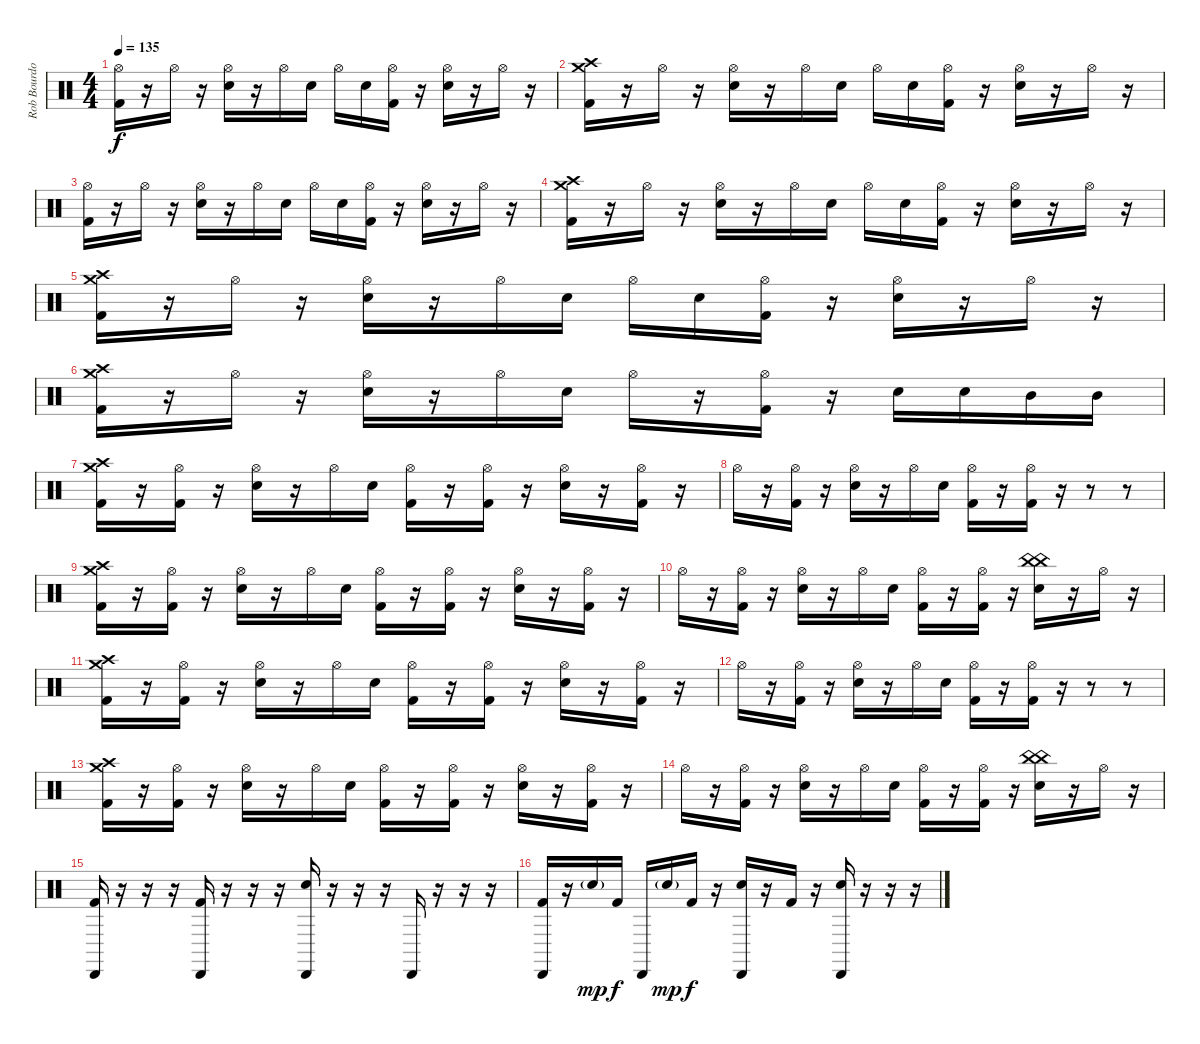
\track ("Rob Bourdon (Drums)" "Rob Bourdo") {instrument percussion}
\staff {score}
\articulation defaults
\ts (4 4)
\tempo 135
\clef neutral
\ks c
("Hi-Hat (open)" "Kick (hit) 2").16{dy f} r.16 "Hi-Hat (open)".16 r.16 ("Hi-Hat (open)" "Electric Snare (hit)").16 r.16 "Hi-Hat (open)".16 "Electric Snare (hit)".16 "Hi-Hat (open)".16 "Electric Snare (hit)".16 ("Hi-Hat (open)" "Kick (hit) 2").16 r.16 ("Hi-Hat (open)" "Electric Snare (hit)").16 r.16 "Hi-Hat (open)".16 r.16 |
("Crash high (hit)" "Crash medium (hit)" "Kick (hit) 2").16 r.16 "Hi-Hat (open)".16 r.16 ("Hi-Hat (open)" "Electric Snare (hit)").16 r.16 "Hi-Hat (open)".16 "Electric Snare (hit)".16 "Hi-Hat (open)".16 "Electric Snare (hit)".16 ("Hi-Hat (open)" "Kick (hit) 2").16 r.16 ("Hi-Hat (open)" "Electric Snare (hit)").16 r.16 "Hi-Hat (open)".16 r.16 |
("Hi-Hat (open)" "Kick (hit) 2").16 r.16 "Hi-Hat (open)".16 r.16 ("Hi-Hat (open)" "Electric Snare (hit)").16 r.16 "Hi-Hat (open)".16 "Electric Snare (hit)".16 "Hi-Hat (open)".16 "Electric Snare (hit)".16 ("Hi-Hat (open)" "Kick (hit) 2").16 r.16 ("Hi-Hat (open)" "Electric Snare (hit)").16 r.16 "Hi-Hat (open)".16 r.16 |
("Crash high (hit)" "Crash medium (hit)" "Kick (hit) 2").16 r.16 "Hi-Hat (open)".16 r.16 ("Hi-Hat (open)" "Electric Snare (hit)").16 r.16 "Hi-Hat (open)".16 "Electric Snare (hit)".16 "Hi-Hat (open)".16 "Electric Snare (hit)".16 ("Hi-Hat (open)" "Kick (hit) 2").16 r.16 ("Hi-Hat (open)" "Electric Snare (hit)").16 r.16 "Hi-Hat (open)".16 r.16 |
("Crash high (hit)" "Crash medium (hit)" "Kick (hit) 2").16 r.16 "Hi-Hat (open)".16 r.16 ("Hi-Hat (open)" "Electric Snare (hit)").16 r.16 "Hi-Hat (open)".16 "Electric Snare (hit)".16 "Hi-Hat (open)".16 "Electric Snare (hit)".16 ("Hi-Hat (open)" "Kick (hit) 2").16 r.16 ("Hi-Hat (open)" "Electric Snare (hit)").16 r.16 "Hi-Hat (open)".16 r.16 |
("Crash high (hit)" "Crash medium (hit)" "Kick (hit) 2").16 r.16 "Hi-Hat (open)".16 r.16 ("Hi-Hat (open)" "Electric Snare (hit)").16 r.16 "Hi-Hat (open)".16 "Electric Snare (hit)".16 "Hi-Hat (open)".16 r.16 ("Hi-Hat (open)" "Kick (hit) 2").16 r.16 "Electric Snare (hit)".16 "Electric Snare (hit)".16 "Mid Tom (hit)".16 "Mid Tom (hit)".16 |
("Crash high (hit)" "Crash medium (hit)" "Kick (hit) 2").16 r.16 ("Hi-Hat (open)" "Kick (hit) 2").16 r.16 ("Hi-Hat (open)" "Electric Snare (hit)").16 r.16 "Hi-Hat (open)".16 "Electric Snare (hit)".16 ("Hi-Hat (open)" "Kick (hit) 2").16 r.16 ("Hi-Hat (open)" "Kick (hit) 2").16 r.16 ("Hi-Hat (open)" "Electric Snare (hit)").16 r.16 ("Hi-Hat (open)" "Kick (hit) 2").16 r.16 |
"Hi-Hat (open)".16 r.16 ("Hi-Hat (open)" "Kick (hit) 2").16 r.16 ("Hi-Hat (open)" "Electric Snare (hit)").16 r.16 "Hi-Hat (open)".16 "Electric Snare (hit)".16 ("Hi-Hat (open)" "Kick (hit) 2").16 r.16 ("Hi-Hat (open)" "Kick (hit) 2").16 r.16 r.8 r.8 |
("Crash high (hit)" "Crash medium (hit)" "Kick (hit) 2").16 r.16 ("Hi-Hat (open)" "Kick (hit) 2").16 r.16 ("Hi-Hat (open)" "Electric Snare (hit)").16 r.16 "Hi-Hat (open)".16 "Electric Snare (hit)".16 ("Hi-Hat (open)" "Kick (hit) 2").16 r.16 ("Hi-Hat (open)" "Kick (hit) 2").16 r.16 ("Hi-Hat (open)" "Electric Snare (hit)").16 r.16 ("Hi-Hat (open)" "Kick (hit) 2").16 r.16 |
"Hi-Hat (open)".16 r.16 ("Hi-Hat (open)" "Kick (hit) 2").16 r.16 ("Hi-Hat (open)" "Electric Snare (hit)").16 r.16 "Hi-Hat (open)".16 "Electric Snare (hit)".16 ("Hi-Hat (open)" "Kick (hit) 2").16 r.16 ("Hi-Hat (open)" "Kick (hit) 2").16 r.16 ("China (hit)" "China (hit)" "Electric Snare (hit)").16 r.16 "Hi-Hat (open)".16 r.16 |
("Crash high (hit)" "Crash medium (hit)" "Kick (hit) 2").16 r.16 ("Hi-Hat (open)" "Kick (hit) 2").16 r.16 ("Hi-Hat (open)" "Electric Snare (hit)").16 r.16 "Hi-Hat (open)".16 "Electric Snare (hit)".16 ("Hi-Hat (open)" "Kick (hit) 2").16 r.16 ("Hi-Hat (open)" "Kick (hit) 2").16 r.16 ("Hi-Hat (open)" "Electric Snare (hit)").16 r.16 ("Hi-Hat (open)" "Kick (hit) 2").16 r.16 |
"Hi-Hat (open)".16 r.16 ("Hi-Hat (open)" "Kick (hit) 2").16 r.16 ("Hi-Hat (open)" "Electric Snare (hit)").16 r.16 "Hi-Hat (open)".16 "Electric Snare (hit)".16 ("Hi-Hat (open)" "Kick (hit) 2").16 r.16 ("Hi-Hat (open)" "Kick (hit) 2").16 r.16 r.8 r.8 |
("Crash high (hit)" "Crash medium (hit)" "Kick (hit) 2").16 r.16 ("Hi-Hat (open)" "Kick (hit) 2").16 r.16 ("Hi-Hat (open)" "Electric Snare (hit)").16 r.16 "Hi-Hat (open)".16 "Electric Snare (hit)".16 ("Hi-Hat (open)" "Kick (hit) 2").16 r.16 ("Hi-Hat (open)" "Kick (hit) 2").16 r.16 ("Hi-Hat (open)" "Electric Snare (hit)").16 r.16 ("Hi-Hat (open)" "Kick (hit) 2").16 r.16 |
"Hi-Hat (open)".16 r.16 ("Hi-Hat (open)" "Kick (hit) 2").16 r.16 ("Hi-Hat (open)" "Electric Snare (hit)").16 r.16 "Hi-Hat (open)".16 "Electric Snare (hit)".16 ("Hi-Hat (open)" "Kick (hit) 2").16 r.16 ("Hi-Hat (open)" "Kick (hit) 2").16 r.16 ("China (hit)" "China (hit)" "Electric Snare (hit)").16 r.16 "Hi-Hat (open)".16 r.16 |
("Cabasa (hit)" "Kick (hit) 2").16 r.16 r.16 r.16 ("Cabasa (hit)" "Kick (hit) 2").16 r.16 r.16 r.16 ("Cabasa (hit)" "Hand Clap (hit)").16 r.16 r.16 r.16 "Cabasa (hit)".16 r.16 r.16 r.16 |
("Cabasa (hit)" "Kick (hit) 2").16 r.16 "Hand Clap (hit)"{g}.16{dy mp} "Kick (hit) 2".16{dy f} "Cabasa (hit)".16 "Hand Clap (hit)"{g}.16{dy mp} "Kick (hit) 2".16{dy f} r.16 ("Cabasa (hit)" "Hand Clap (hit)").16 r.16 "Kick (hit) 2".16 r.16 ("Cabasa (hit)" "Hand Clap (hit)").16 r.16 r.16 r.16
